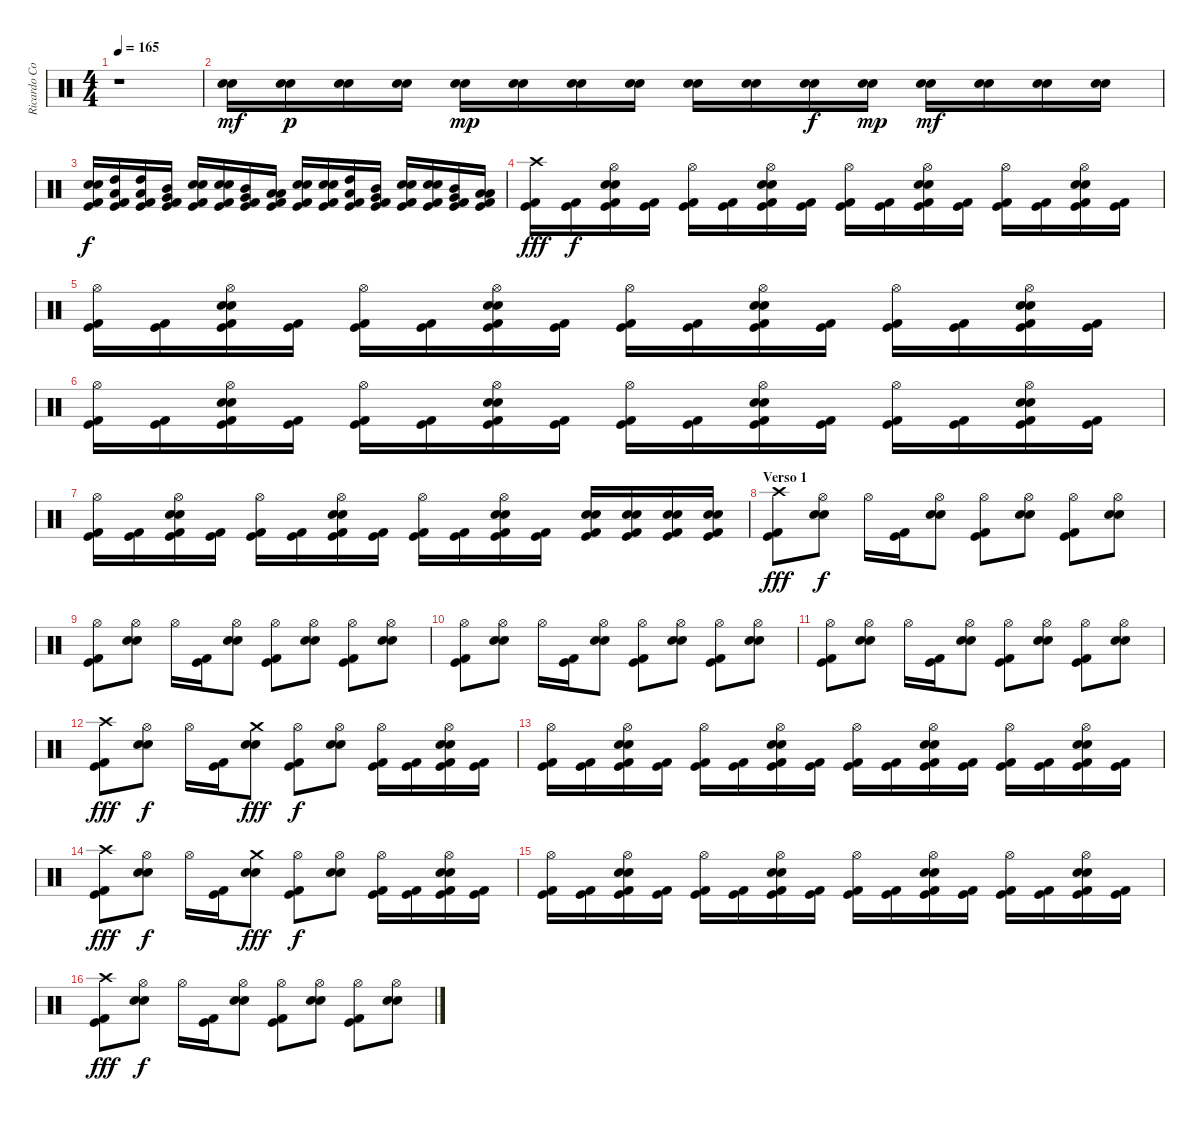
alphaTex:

\track ("Ricardo Confessori" "Ricardo Co") {instrument percussion}
\staff {score}
\articulation defaults
\ts (4 4)
\tempo 165
\clef neutral
\ks c
r.1{dy fff} |
("Electric Snare (hit)" "Snare (hit) 2").16{dy mf} ("Electric Snare (hit)" "Snare (hit) 2").16{dy p} ("Electric Snare (hit)" "Snare (hit) 2").16 ("Electric Snare (hit)" "Snare (hit) 2").16 ("Electric Snare (hit)" "Snare (hit) 2").16{dy mp} ("Electric Snare (hit)" "Snare (hit) 2").16 ("Electric Snare (hit)" "Snare (hit) 2").16 ("Electric Snare (hit)" "Snare (hit) 2").16 ("Electric Snare (hit)" "Snare (hit) 2").16 ("Electric Snare (hit)" "Snare (hit) 2").16 ("Electric Snare (hit)" "Snare (hit) 2").16{dy f} ("Electric Snare (hit)" "Snare (hit) 2").16{dy mp} ("Electric Snare (hit)" "Snare (hit) 2").16{dy mf} ("Electric Snare (hit)" "Snare (hit) 2").16 ("Electric Snare (hit)" "Snare (hit) 2").16 ("Electric Snare (hit)" "Snare (hit) 2").16 |
("Electric Snare (hit)" "Snare (hit) 2" "Kick (hit) 2" "Kick (hit)").16{dy f} ("High Tom (hit)" "Low Tom (hit)" "Kick (hit) 2" "Kick (hit)").16 ("High Tom (hit)" "Low Tom (hit)" "Kick (hit) 2" "Kick (hit)").16 ("Mid Tom (hit)" "Very Low Tom (hit)" "Kick (hit) 2" "Kick (hit)").16 ("Electric Snare (hit)" "Snare (hit) 2" "Kick (hit) 2" "Kick (hit)").16 ("Electric Snare (hit)" "Snare (hit) 2" "Kick (hit) 2" "Kick (hit)").16 ("Mid Tom (hit)" "Very Low Tom (hit)" "Kick (hit) 2" "Kick (hit)").16 ("Low Tom (hit)" "Low Floor Tom (hit)" "Kick (hit) 2" "Kick (hit)").16 ("Electric Snare (hit)" "Snare (hit) 2" "Kick (hit) 2" "Kick (hit)").16 ("Electric Snare (hit)" "Snare (hit) 2" "Kick (hit) 2" "Kick (hit)").16 ("High Tom (hit)" "Low Tom (hit)" "Kick (hit) 2" "Kick (hit)").16 ("Mid Tom (hit)" "Very Low Tom (hit)" "Kick (hit) 2" "Kick (hit)").16 ("Electric Snare (hit)" "Snare (hit) 2" "Kick (hit) 2" "Kick (hit)").16 ("Electric Snare (hit)" "Snare (hit) 2" "Kick (hit) 2" "Kick (hit)").16 ("Mid Tom (hit)" "Very Low Tom (hit)" "Kick (hit) 2" "Kick (hit)").16 ("Low Tom (hit)" "Low Floor Tom (hit)" "Kick (hit) 2" "Kick (hit)").16 |
("Crash high (hit)" "Kick (hit) 2" "Kick (hit)").16{dy fff} ("Kick (hit) 2" "Kick (hit)").16{dy f} ("Hi-Hat (open)" "Electric Snare (hit)" "Snare (hit) 2" "Kick (hit) 2" "Kick (hit)").16 ("Kick (hit) 2" "Kick (hit)").16 ("Hi-Hat (open)" "Kick (hit) 2" "Kick (hit)").16 ("Kick (hit) 2" "Kick (hit)").16 ("Hi-Hat (open)" "Electric Snare (hit)" "Snare (hit) 2" "Kick (hit) 2" "Kick (hit)").16 ("Kick (hit) 2" "Kick (hit)").16 ("Hi-Hat (open)" "Kick (hit) 2" "Kick (hit)").16 ("Kick (hit) 2" "Kick (hit)").16 ("Hi-Hat (open)" "Electric Snare (hit)" "Snare (hit) 2" "Kick (hit) 2" "Kick (hit)").16 ("Kick (hit) 2" "Kick (hit)").16 ("Hi-Hat (open)" "Kick (hit) 2" "Kick (hit)").16 ("Kick (hit) 2" "Kick (hit)").16 ("Hi-Hat (open)" "Electric Snare (hit)" "Snare (hit) 2" "Kick (hit) 2" "Kick (hit)").16 ("Kick (hit) 2" "Kick (hit)").16 |
("Hi-Hat (open)" "Kick (hit) 2" "Kick (hit)").16 ("Kick (hit) 2" "Kick (hit)").16 ("Hi-Hat (open)" "Electric Snare (hit)" "Snare (hit) 2" "Kick (hit) 2" "Kick (hit)").16 ("Kick (hit) 2" "Kick (hit)").16 ("Hi-Hat (open)" "Kick (hit) 2" "Kick (hit)").16 ("Kick (hit) 2" "Kick (hit)").16 ("Hi-Hat (open)" "Electric Snare (hit)" "Snare (hit) 2" "Kick (hit) 2" "Kick (hit)").16 ("Kick (hit) 2" "Kick (hit)").16 ("Hi-Hat (open)" "Kick (hit) 2" "Kick (hit)").16 ("Kick (hit) 2" "Kick (hit)").16 ("Hi-Hat (open)" "Electric Snare (hit)" "Snare (hit) 2" "Kick (hit) 2" "Kick (hit)").16 ("Kick (hit) 2" "Kick (hit)").16 ("Hi-Hat (open)" "Kick (hit) 2" "Kick (hit)").16 ("Kick (hit) 2" "Kick (hit)").16 ("Hi-Hat (open)" "Electric Snare (hit)" "Snare (hit) 2" "Kick (hit) 2" "Kick (hit)").16 ("Kick (hit) 2" "Kick (hit)").16 |
("Hi-Hat (open)" "Kick (hit) 2" "Kick (hit)").16 ("Kick (hit) 2" "Kick (hit)").16 ("Hi-Hat (open)" "Electric Snare (hit)" "Snare (hit) 2" "Kick (hit) 2" "Kick (hit)").16 ("Kick (hit) 2" "Kick (hit)").16 ("Hi-Hat (open)" "Kick (hit) 2" "Kick (hit)").16 ("Kick (hit) 2" "Kick (hit)").16 ("Hi-Hat (open)" "Electric Snare (hit)" "Snare (hit) 2" "Kick (hit) 2" "Kick (hit)").16 ("Kick (hit) 2" "Kick (hit)").16 ("Hi-Hat (open)" "Kick (hit) 2" "Kick (hit)").16 ("Kick (hit) 2" "Kick (hit)").16 ("Hi-Hat (open)" "Electric Snare (hit)" "Snare (hit) 2" "Kick (hit) 2" "Kick (hit)").16 ("Kick (hit) 2" "Kick (hit)").16 ("Hi-Hat (open)" "Kick (hit) 2" "Kick (hit)").16 ("Kick (hit) 2" "Kick (hit)").16 ("Hi-Hat (open)" "Electric Snare (hit)" "Snare (hit) 2" "Kick (hit) 2" "Kick (hit)").16 ("Kick (hit) 2" "Kick (hit)").16 |
("Hi-Hat (open)" "Kick (hit) 2" "Kick (hit)").16 ("Kick (hit) 2" "Kick (hit)").16 ("Hi-Hat (open)" "Electric Snare (hit)" "Snare (hit) 2" "Kick (hit) 2" "Kick (hit)").16 ("Kick (hit) 2" "Kick (hit)").16 ("Hi-Hat (open)" "Kick (hit) 2" "Kick (hit)").16 ("Kick (hit) 2" "Kick (hit)").16 ("Hi-Hat (open)" "Electric Snare (hit)" "Snare (hit) 2" "Kick (hit) 2" "Kick (hit)").16 ("Kick (hit) 2" "Kick (hit)").16 ("Hi-Hat (open)" "Kick (hit) 2" "Kick (hit)").16 ("Kick (hit) 2" "Kick (hit)").16 ("Hi-Hat (open)" "Electric Snare (hit)" "Snare (hit) 2" "Kick (hit) 2" "Kick (hit)").16 ("Kick (hit) 2" "Kick (hit)").16 ("Electric Snare (hit)" "Snare (hit) 2" "Kick (hit) 2" "Kick (hit)").16 ("Electric Snare (hit)" "Snare (hit) 2" "Kick (hit) 2" "Kick (hit)").16 ("Electric Snare (hit)" "Snare (hit) 2" "Kick (hit) 2" "Kick (hit)").16 ("Electric Snare (hit)" "Snare (hit) 2" "Kick (hit) 2" "Kick (hit)").16 |
\section ("" "Verso 1")
("Crash high (hit)" "Kick (hit) 2" "Kick (hit)").8{dy fff} ("Hi-Hat (open)" "Electric Snare (hit)" "Snare (hit) 2").8{dy f} "Hi-Hat (open)".16 ("Kick (hit) 2" "Kick (hit)").16 ("Hi-Hat (open)" "Electric Snare (hit)" "Snare (hit) 2").8 ("Hi-Hat (open)" "Kick (hit) 2" "Kick (hit)").8 ("Hi-Hat (open)" "Electric Snare (hit)" "Snare (hit) 2").8 ("Hi-Hat (open)" "Kick (hit) 2" "Kick (hit)").8 ("Hi-Hat (open)" "Electric Snare (hit)" "Snare (hit) 2").8 |
("Hi-Hat (open)" "Kick (hit) 2" "Kick (hit)").8 ("Hi-Hat (open)" "Electric Snare (hit)" "Snare (hit) 2").8 "Hi-Hat (open)".16 ("Kick (hit) 2" "Kick (hit)").16 ("Hi-Hat (open)" "Electric Snare (hit)" "Snare (hit) 2").8 ("Hi-Hat (open)" "Kick (hit) 2" "Kick (hit)").8 ("Hi-Hat (open)" "Electric Snare (hit)" "Snare (hit) 2").8 ("Hi-Hat (open)" "Kick (hit) 2" "Kick (hit)").8 ("Hi-Hat (open)" "Electric Snare (hit)" "Snare (hit) 2").8 |
("Hi-Hat (open)" "Kick (hit) 2" "Kick (hit)").8 ("Hi-Hat (open)" "Electric Snare (hit)" "Snare (hit) 2").8 "Hi-Hat (open)".16 ("Kick (hit) 2" "Kick (hit)").16 ("Hi-Hat (open)" "Electric Snare (hit)" "Snare (hit) 2").8 ("Hi-Hat (open)" "Kick (hit) 2" "Kick (hit)").8 ("Hi-Hat (open)" "Electric Snare (hit)" "Snare (hit) 2").8 ("Hi-Hat (open)" "Kick (hit) 2" "Kick (hit)").8 ("Hi-Hat (open)" "Electric Snare (hit)" "Snare (hit) 2").8 |
("Hi-Hat (open)" "Kick (hit) 2" "Kick (hit)").8 ("Hi-Hat (open)" "Electric Snare (hit)" "Snare (hit) 2").8 "Hi-Hat (open)".16 ("Kick (hit) 2" "Kick (hit)").16 ("Hi-Hat (open)" "Electric Snare (hit)" "Snare (hit) 2").8 ("Hi-Hat (open)" "Kick (hit) 2" "Kick (hit)").8 ("Hi-Hat (open)" "Electric Snare (hit)" "Snare (hit) 2").8 ("Hi-Hat (open)" "Kick (hit) 2" "Kick (hit)").8 ("Hi-Hat (open)" "Electric Snare (hit)" "Snare (hit) 2").8 |
("Crash high (hit)" "Kick (hit) 2" "Kick (hit)").8{dy fff} ("Hi-Hat (open)" "Electric Snare (hit)" "Snare (hit) 2").8{dy f} "Hi-Hat (open)".16 ("Kick (hit) 2" "Kick (hit)").16 ("Crash medium (hit)" "Electric Snare (hit)" "Snare (hit) 2").8{dy fff} ("Hi-Hat (open)" "Kick (hit) 2" "Kick (hit)").8{dy f} ("Hi-Hat (open)" "Electric Snare (hit)" "Snare (hit) 2").8 ("Hi-Hat (open)" "Kick (hit) 2" "Kick (hit)").16 ("Kick (hit) 2" "Kick (hit)").16 ("Hi-Hat (open)" "Electric Snare (hit)" "Snare (hit) 2" "Kick (hit) 2" "Kick (hit)").16 ("Kick (hit) 2" "Kick (hit)").16 |
("Hi-Hat (open)" "Kick (hit) 2" "Kick (hit)").16 ("Kick (hit) 2" "Kick (hit)").16 ("Hi-Hat (open)" "Electric Snare (hit)" "Snare (hit) 2" "Kick (hit) 2" "Kick (hit)").16 ("Kick (hit) 2" "Kick (hit)").16 ("Hi-Hat (open)" "Kick (hit) 2" "Kick (hit)").16 ("Kick (hit) 2" "Kick (hit)").16 ("Hi-Hat (open)" "Electric Snare (hit)" "Snare (hit) 2" "Kick (hit) 2" "Kick (hit)").16 ("Kick (hit) 2" "Kick (hit)").16 ("Hi-Hat (open)" "Kick (hit) 2" "Kick (hit)").16 ("Kick (hit) 2" "Kick (hit)").16 ("Hi-Hat (open)" "Electric Snare (hit)" "Snare (hit) 2" "Kick (hit) 2" "Kick (hit)").16 ("Kick (hit) 2" "Kick (hit)").16 ("Hi-Hat (open)" "Kick (hit) 2" "Kick (hit)").16 ("Kick (hit) 2" "Kick (hit)").16 ("Hi-Hat (open)" "Electric Snare (hit)" "Snare (hit) 2" "Kick (hit) 2" "Kick (hit)").16 ("Kick (hit) 2" "Kick (hit)").16 |
("Crash high (hit)" "Kick (hit) 2" "Kick (hit)").8{dy fff} ("Hi-Hat (open)" "Electric Snare (hit)" "Snare (hit) 2").8{dy f} "Hi-Hat (open)".16 ("Kick (hit) 2" "Kick (hit)").16 ("Crash medium (hit)" "Electric Snare (hit)" "Snare (hit) 2").8{dy fff} ("Hi-Hat (open)" "Kick (hit) 2" "Kick (hit)").8{dy f} ("Hi-Hat (open)" "Electric Snare (hit)" "Snare (hit) 2").8 ("Hi-Hat (open)" "Kick (hit) 2" "Kick (hit)").16 ("Kick (hit) 2" "Kick (hit)").16 ("Hi-Hat (open)" "Electric Snare (hit)" "Snare (hit) 2" "Kick (hit) 2" "Kick (hit)").16 ("Kick (hit) 2" "Kick (hit)").16 |
("Hi-Hat (open)" "Kick (hit) 2" "Kick (hit)").16 ("Kick (hit) 2" "Kick (hit)").16 ("Hi-Hat (open)" "Electric Snare (hit)" "Snare (hit) 2" "Kick (hit) 2" "Kick (hit)").16 ("Kick (hit) 2" "Kick (hit)").16 ("Hi-Hat (open)" "Kick (hit) 2" "Kick (hit)").16 ("Kick (hit) 2" "Kick (hit)").16 ("Hi-Hat (open)" "Electric Snare (hit)" "Snare (hit) 2" "Kick (hit) 2" "Kick (hit)").16 ("Kick (hit) 2" "Kick (hit)").16 ("Hi-Hat (open)" "Kick (hit) 2" "Kick (hit)").16 ("Kick (hit) 2" "Kick (hit)").16 ("Hi-Hat (open)" "Electric Snare (hit)" "Snare (hit) 2" "Kick (hit) 2" "Kick (hit)").16 ("Kick (hit) 2" "Kick (hit)").16 ("Hi-Hat (open)" "Kick (hit) 2" "Kick (hit)").16 ("Kick (hit) 2" "Kick (hit)").16 ("Hi-Hat (open)" "Electric Snare (hit)" "Snare (hit) 2" "Kick (hit) 2" "Kick (hit)").16 ("Kick (hit) 2" "Kick (hit)").16 |
("Crash high (hit)" "Kick (hit) 2" "Kick (hit)").8{dy fff} ("Hi-Hat (open)" "Electric Snare (hit)" "Snare (hit) 2").8{dy f} "Hi-Hat (open)".16 ("Kick (hit) 2" "Kick (hit)").16 ("Hi-Hat (open)" "Electric Snare (hit)" "Snare (hit) 2").8 ("Hi-Hat (open)" "Kick (hit) 2" "Kick (hit)").8 ("Hi-Hat (open)" "Electric Snare (hit)" "Snare (hit) 2").8 ("Hi-Hat (open)" "Kick (hit) 2" "Kick (hit)").8 ("Hi-Hat (open)" "Electric Snare (hit)" "Snare (hit) 2").8
